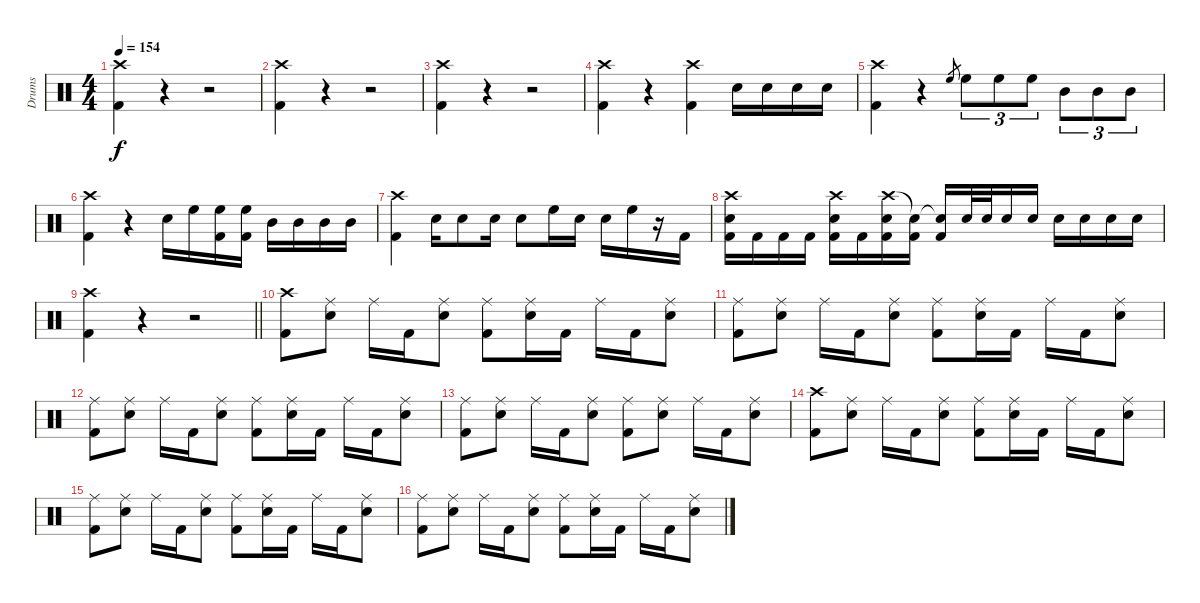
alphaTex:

\track ("Drums" "Drums") {instrument percussion}
\staff {score}
\articulation defaults
\ts (4 4)
\tempo 154
\clef neutral
\ks c
("Crash high (hit)" "Kick (hit) 2").4{dy f} r.4 r.2 |
("Crash high (hit)" "Kick (hit) 2").4 r.4 r.2 |
("Crash high (hit)" "Kick (hit) 2").4 r.4 r.2 |
("Crash high (hit)" "Kick (hit) 2").4 r.4 ("Crash high (hit)" "Kick (hit) 2").4 "Snare (hit) 2".16 "Snare (hit) 2".16 "Snare (hit) 2".16 "Snare (hit) 2".16 |
("Crash high (hit)" "Kick (hit) 2").4 r.4 "High Floor Tom (hit)".8{gr} "High Floor Tom (hit)".8{tu (3 2)} "High Floor Tom (hit)".8{tu (3 2)} "High Floor Tom (hit)".8{tu (3 2)} "Mid Tom (hit)".8{tu (3 2)} "Mid Tom (hit)".8{tu (3 2)} "Mid Tom (hit)".8{tu (3 2)} |
("Crash high (hit)" "Kick (hit) 2").4 r.4 "Snare (hit) 2".16 "High Floor Tom (hit)".16 ("High Floor Tom (hit)" "Kick (hit) 2").16 ("High Floor Tom (hit)" "Kick (hit) 2").16 "Mid Tom (hit)".16 "Mid Tom (hit)".16 "Mid Tom (hit)".16 "Mid Tom (hit)".16 |
("Crash high (hit)" "Kick (hit) 2").4 "Snare (hit) 2".16 "Snare (hit) 2".8 "Snare (hit) 2".16 "Snare (hit) 2".8 "High Floor Tom (hit)".16 "Snare (hit) 2".16 "Snare (hit) 2".16 "High Floor Tom (hit)".16 r.16 "Kick (hit) 2".16 |
("Crash high (hit)" "Snare (hit) 2" "Kick (hit) 2").16 "Kick (hit) 2".16 "Kick (hit) 2".16 "Kick (hit) 2".16 ("Crash high (hit)" "Snare (hit) 2" "Kick (hit) 2").16 "Kick (hit) 2".16 ("Crash high (hit)" "Snare (hit) 2" "Kick (hit) 2").16 ("Snare (hit)"{t} "Kick (hit) 2").16 ("Snare (hit)"{t} "Kick (hit) 2").16 "Snare (hit) 2".32 "Snare (hit) 2".32 "Snare (hit) 2".16 "Snare (hit) 2".16 "Snare (hit) 2".16 "Snare (hit) 2".16 "Snare (hit) 2".16 "Snare (hit) 2".16 |
\barLineRight lightlight
("Crash high (hit)" "Kick (hit) 2").4 r.4 r.2 |
("Crash high (hit)" "Kick (hit) 2").8 ("Ride (middle)" "Snare (hit) 2").8 "Ride (middle)".16 "Kick (hit) 2".16 ("Ride (middle)" "Snare (hit) 2").8 ("Ride (middle)" "Kick (hit) 2").8 ("Ride (middle)" "Snare (hit) 2").16 "Kick (hit) 2".16 "Ride (middle)".16 "Kick (hit) 2".16 ("Ride (middle)" "Snare (hit) 2").8 |
("Ride (middle)" "Kick (hit) 2").8 ("Ride (middle)" "Snare (hit) 2").8 "Ride (middle)".16 "Kick (hit) 2".16 ("Ride (middle)" "Snare (hit) 2").8 ("Ride (middle)" "Kick (hit) 2").8 ("Ride (middle)" "Snare (hit) 2").16 "Kick (hit) 2".16 "Ride (middle)".16 "Kick (hit) 2".16 ("Ride (middle)" "Snare (hit) 2").8 |
("Ride (middle)" "Kick (hit) 2").8 ("Ride (middle)" "Snare (hit) 2").8 "Ride (middle)".16 "Kick (hit) 2".16 ("Ride (middle)" "Snare (hit) 2").8 ("Ride (middle)" "Kick (hit) 2").8 ("Ride (middle)" "Snare (hit) 2").16 "Kick (hit) 2".16 "Ride (middle)".16 "Kick (hit) 2".16 ("Ride (middle)" "Snare (hit) 2").8 |
("Ride (middle)" "Kick (hit) 2").8 ("Ride (middle)" "Snare (hit) 2").8 "Ride (middle)".16 "Kick (hit) 2".16 ("Ride (middle)" "Snare (hit) 2").8 ("Ride (middle)" "Kick (hit) 2").8 ("Ride (middle)" "Snare (hit) 2").8 "Ride (middle)".16 "Kick (hit) 2".16 ("Ride (middle)" "Snare (hit) 2").8 |
("Crash high (hit)" "Kick (hit) 2").8 ("Ride (middle)" "Snare (hit) 2").8 "Ride (middle)".16 "Kick (hit) 2".16 ("Ride (middle)" "Snare (hit) 2").8 ("Ride (middle)" "Kick (hit) 2").8 ("Ride (middle)" "Snare (hit) 2").16 "Kick (hit) 2".16 "Ride (middle)".16 "Kick (hit) 2".16 ("Ride (middle)" "Snare (hit) 2").8 |
("Ride (middle)" "Kick (hit) 2").8 ("Ride (middle)" "Snare (hit) 2").8 "Ride (middle)".16 "Kick (hit) 2".16 ("Ride (middle)" "Snare (hit) 2").8 ("Ride (middle)" "Kick (hit) 2").8 ("Ride (middle)" "Snare (hit) 2").16 "Kick (hit) 2".16 "Ride (middle)".16 "Kick (hit) 2".16 ("Ride (middle)" "Snare (hit) 2").8 |
("Ride (middle)" "Kick (hit) 2").8 ("Ride (middle)" "Snare (hit) 2").8 "Ride (middle)".16 "Kick (hit) 2".16 ("Ride (middle)" "Snare (hit) 2").8 ("Ride (middle)" "Kick (hit) 2").8 ("Ride (middle)" "Snare (hit) 2").16 "Kick (hit) 2".16 "Ride (middle)".16 "Kick (hit) 2".16 ("Ride (middle)" "Snare (hit) 2").8
